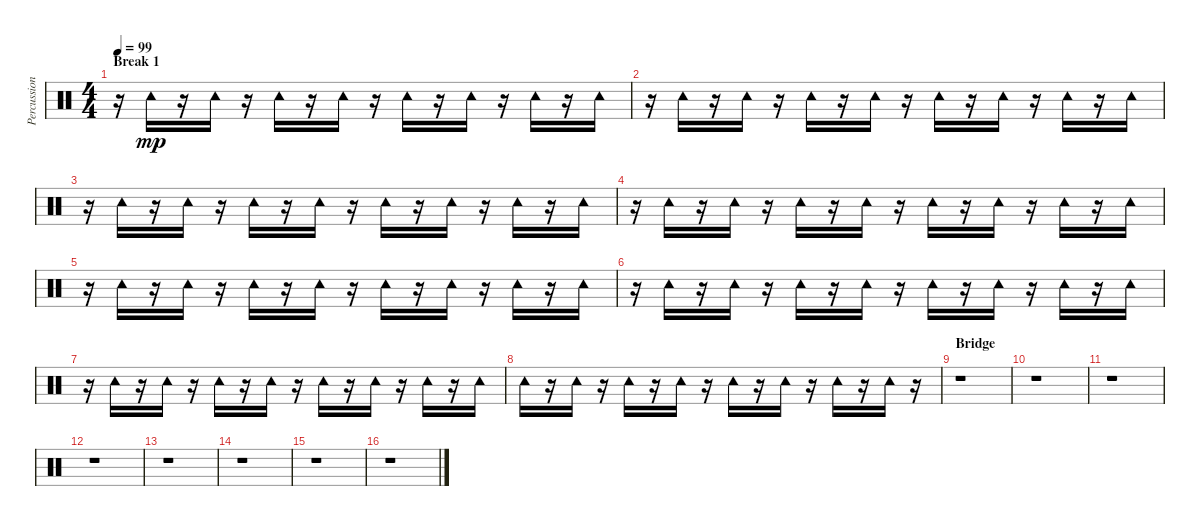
\track ("Percussion" "Percussion") {instrument percussion}
\staff {score}
\articulation defaults
\ts (4 4)
\section ("" "Break 1")
\tempo 99
\clef neutral
\ks c
r.16{dy f} "Tambourine (hit)".16{dy mp} r.16 "Tambourine (hit)".16 r.16 "Tambourine (hit)".16 r.16 "Tambourine (hit)".16 r.16 "Tambourine (hit)".16 r.16 "Tambourine (hit)".16 r.16 "Tambourine (hit)".16 r.16 "Tambourine (hit)".16 |
r.16 "Tambourine (hit)".16 r.16 "Tambourine (hit)".16 r.16 "Tambourine (hit)".16 r.16 "Tambourine (hit)".16 r.16 "Tambourine (hit)".16 r.16 "Tambourine (hit)".16 r.16 "Tambourine (hit)".16 r.16 "Tambourine (hit)".16 |
r.16 "Tambourine (hit)".16 r.16 "Tambourine (hit)".16 r.16 "Tambourine (hit)".16 r.16 "Tambourine (hit)".16 r.16 "Tambourine (hit)".16 r.16 "Tambourine (hit)".16 r.16 "Tambourine (hit)".16 r.16 "Tambourine (hit)".16 |
r.16 "Tambourine (hit)".16 r.16 "Tambourine (hit)".16 r.16 "Tambourine (hit)".16 r.16 "Tambourine (hit)".16 r.16 "Tambourine (hit)".16 r.16 "Tambourine (hit)".16 r.16 "Tambourine (hit)".16 r.16 "Tambourine (hit)".16 |
r.16 "Tambourine (hit)".16 r.16 "Tambourine (hit)".16 r.16 "Tambourine (hit)".16 r.16 "Tambourine (hit)".16 r.16 "Tambourine (hit)".16 r.16 "Tambourine (hit)".16 r.16 "Tambourine (hit)".16 r.16 "Tambourine (hit)".16 |
r.16 "Tambourine (hit)".16 r.16 "Tambourine (hit)".16 r.16 "Tambourine (hit)".16 r.16 "Tambourine (hit)".16 r.16 "Tambourine (hit)".16 r.16 "Tambourine (hit)".16 r.16 "Tambourine (hit)".16 r.16 "Tambourine (hit)".16 |
r.16 "Tambourine (hit)".16 r.16 "Tambourine (hit)".16 r.16 "Tambourine (hit)".16 r.16 "Tambourine (hit)".16 r.16 "Tambourine (hit)".16 r.16 "Tambourine (hit)".16 r.16 "Tambourine (hit)".16 r.16 "Tambourine (hit)".16 |
"Tambourine (hit)".16 r.16 "Tambourine (hit)".16 r.16 "Tambourine (hit)".16 r.16 "Tambourine (hit)".16 r.16 "Tambourine (hit)".16 r.16 "Tambourine (hit)".16 r.16 "Tambourine (hit)".16 r.16 "Tambourine (hit)".16 r.16 |
\section ("" "Bridge")
r.1 |
r.1 |
r.1 |
r.1 |
r.1 |
r.1 |
r.1 |
r.1
